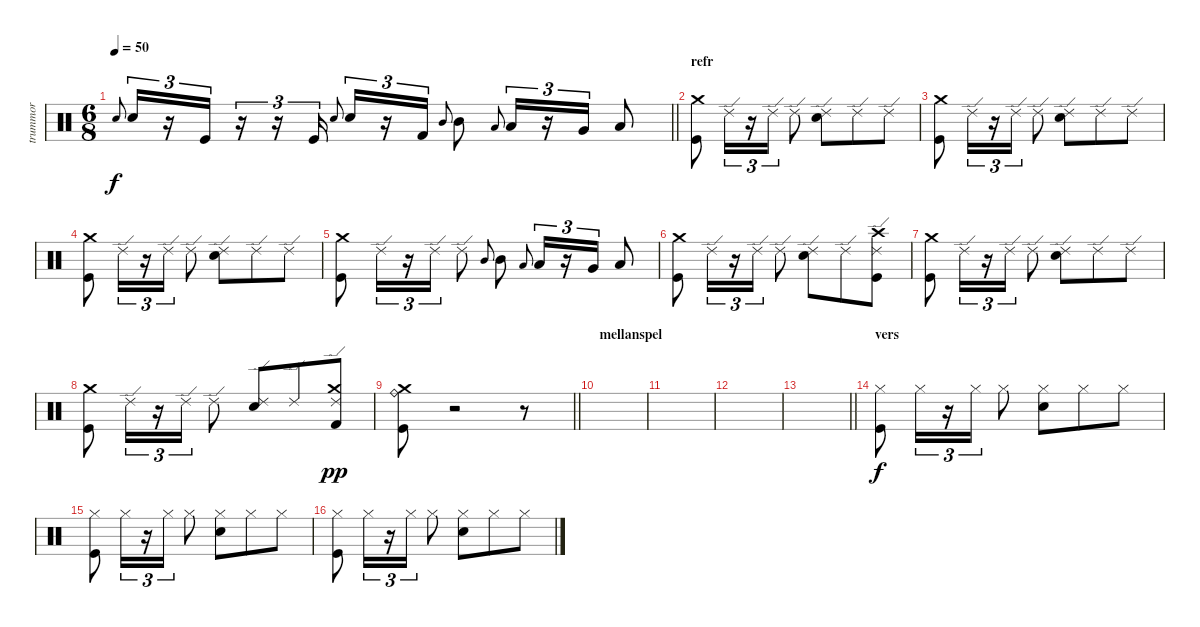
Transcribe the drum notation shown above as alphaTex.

\track ("trummor" "trummor") {instrument percussion}
\staff {score}
\articulation defaults
\ts (6 8)
\tempo 50
\clef neutral
\barLineRight lightlight
\ks c "Electric Snare (hit)".8{gr onbeat dy f} "Electric Snare (hit)".16{tu (3 2)}
r.16{tu (3 2)} "Kick (hit)".16{tu (3 2)} r.16{tu (3 2)} r.16{tu (3 2)} "Kick (hit)".16{tu (3 2)} "Snare (hit) 2".8{gr onbeat} "Snare (hit) 2".16{tu (3 2)} r.16{tu (3 2)} "Kick (hit) 2".16{tu (3 2)} "Mid Tom (hit)".8{gr onbeat} "Mid Tom (hit)".8 "Low Tom (hit)".8{gr onbeat} "Low Tom (hit)".16{tu (3 2)} r.16{tu (3 2)} "Very Low Tom (hit)".16{tu (3 2)} "Low Floor Tom (hit)".8 |
\section ("" "refr")
("Kick (hit)" "Crash medium (hit)").8 "Ride (edge) 2".16{tu (3 2)} r.16{tu (3 2)} "Ride (edge) 2".16{tu (3 2)} "Ride (edge) 2".8 ("Ride (edge) 2" "Snare (hit) 2").8 "Ride (edge) 2".8 "Ride (edge) 2".8 |
("Kick (hit)" "Crash medium (hit)").8 "Ride (edge) 2".16{tu (3 2)} r.16{tu (3 2)} "Ride (edge) 2".16{tu (3 2)} "Ride (edge) 2".8 ("Ride (edge) 2" "Snare (hit) 2").8 "Ride (edge) 2".8 "Ride (edge) 2".8 |
("Kick (hit)" "Crash medium (hit)").8 "Ride (edge) 2".16{tu (3 2)} r.16{tu (3 2)} "Ride (edge) 2".16{tu (3 2)} "Ride (edge) 2".8 ("Ride (edge) 2" "Snare (hit) 2").8 "Ride (edge) 2".8 "Ride (edge) 2".8 |
("Kick (hit)" "Crash medium (hit)").8 "Ride (edge) 2".16{tu (3 2)} r.16{tu (3 2)} "Ride (edge) 2".16{tu (3 2)} "Ride (edge) 2".8 "Mid Tom (hit)".8{gr onbeat} "Mid Tom (hit)".8 "Low Tom (hit)".8{gr onbeat} "Low Tom (hit)".16{tu (3 2)} r.16{tu (3 2)} "Very Low Tom (hit)".16{tu (3 2)} "Low Floor Tom (hit)".8 |
("Kick (hit)" "Crash medium (hit)").8 "Ride (edge) 2".16{tu (3 2)} r.16{tu (3 2)} "Ride (edge) 2".16{tu (3 2)} "Ride (edge) 2".8 ("Ride (edge) 2" "Snare (hit) 2").8 "Ride (edge) 2".8 ("Ride (edge) 2" "Kick (hit)" "Crash high (hit)").8 |
("Kick (hit)" "Crash medium (hit)").8 "Ride (edge) 2".16{tu (3 2)} r.16{tu (3 2)} "Ride (edge) 2".16{tu (3 2)} "Ride (edge) 2".8 ("Ride (edge) 2" "Snare (hit) 2").8 "Ride (edge) 2".8 "Ride (edge) 2".8 |
("Kick (hit)" "Crash medium (hit)").8 "Ride (edge) 2".16{tu (3 2)} r.16{tu (3 2)} "Ride (edge) 2".16{tu (3 2)} "Ride (edge) 2".8 ("Ride (edge) 2" "Snare (hit) 2").8 "Ride (edge) 2".8 ("Ride (edge) 2" "Kick (hit) 2" "Crash medium (hit)").8{dy pp} |
\barLineRight lightlight
("Kick (hit)" "Ride (bell)" "Crash medium (hit)").8 r.2 r.8 |
\section ("" "mellanspel")
|
|
|
\barLineRight lightlight
|
\section ("" "vers")
("Kick (hit)" "Hi-Hat (closed)").8{dy f} "Hi-Hat (closed)".16{tu (3 2)} r.16{tu (3 2)} "Hi-Hat (closed)".16{tu (3 2)} "Hi-Hat (closed)".8 ("Snare (hit) 2" "Hi-Hat (closed)").8 "Hi-Hat (closed)".8 "Hi-Hat (closed)".8 |
("Kick (hit)" "Hi-Hat (closed)").8 "Hi-Hat (closed)".16{tu (3 2)} r.16{tu (3 2)} "Hi-Hat (closed)".16{tu (3 2)} "Hi-Hat (closed)".8 ("Snare (hit) 2" "Hi-Hat (closed)").8 "Hi-Hat (closed)".8 "Hi-Hat (closed)".8 |
("Kick (hit)" "Hi-Hat (closed)").8 "Hi-Hat (closed)".16{tu (3 2)} r.16{tu (3 2)} "Hi-Hat (closed)".16{tu (3 2)} "Hi-Hat (closed)".8 ("Snare (hit) 2" "Hi-Hat (closed)").8 "Hi-Hat (closed)".8 "Hi-Hat (closed)".8
